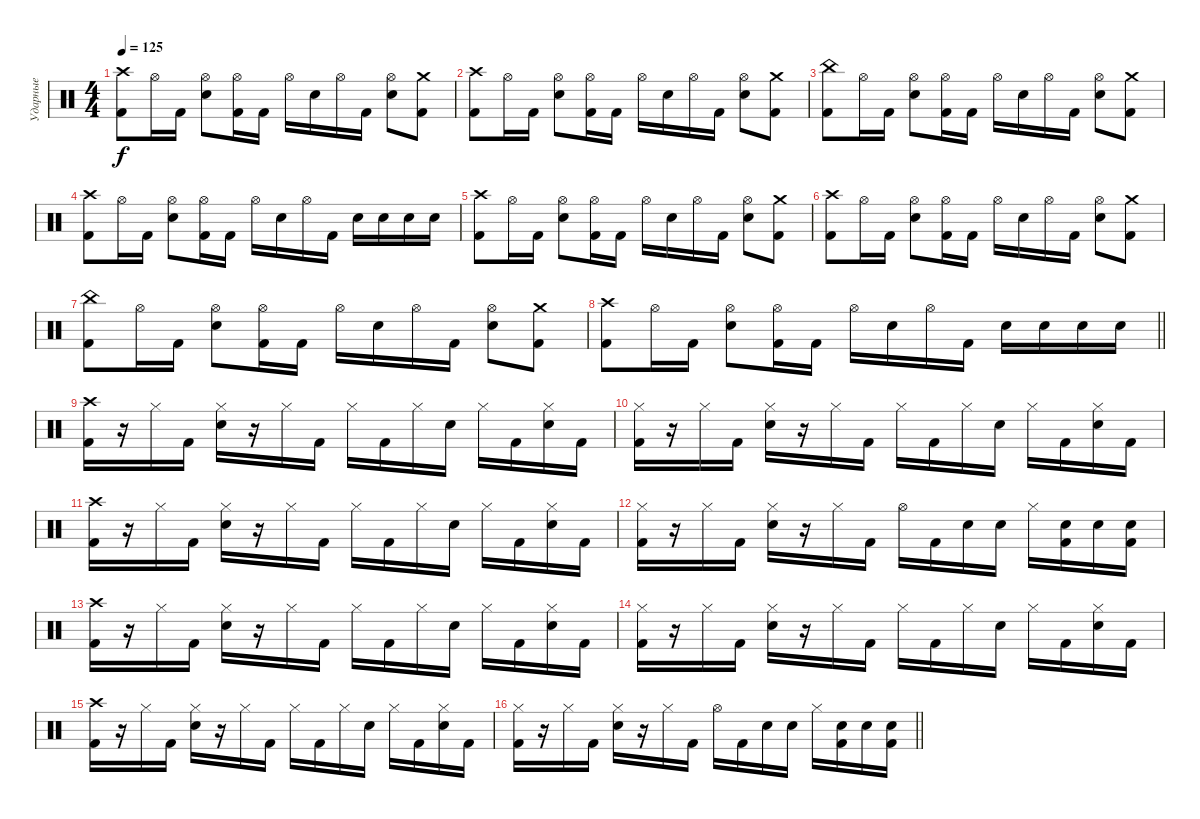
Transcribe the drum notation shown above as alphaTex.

\track ("Ударные" "Ударные") {instrument percussion}
\staff {score}
\articulation defaults
\ts (4 4)
\tempo 125
\clef neutral
\ks c
("Crash high (hit)" "Kick (hit) 2").8{dy f} "Hi-Hat (open)".16 "Kick (hit) 2".16 ("Hi-Hat (open)" "Electric Snare (hit)").8 ("Hi-Hat (open)" "Kick (hit) 2").16 "Kick (hit) 2".16 "Hi-Hat (open)".16 "Electric Snare (hit)".16 "Hi-Hat (open)".16 "Kick (hit) 2".16 ("Hi-Hat (open)" "Electric Snare (hit)").8 ("Crash medium (hit)" "Kick (hit) 2").8 |
("Crash high (hit)" "Kick (hit) 2").8 "Hi-Hat (open)".16 "Kick (hit) 2".16 ("Hi-Hat (open)" "Electric Snare (hit)").8 ("Hi-Hat (open)" "Kick (hit) 2").16 "Kick (hit) 2".16 "Hi-Hat (open)".16 "Electric Snare (hit)".16 "Hi-Hat (open)".16 "Kick (hit) 2".16 ("Hi-Hat (open)" "Electric Snare (hit)").8 ("Crash medium (hit)" "Kick (hit) 2").8 |
("China (hit)" "Kick (hit) 2").8 "Hi-Hat (open)".16 "Kick (hit) 2".16 ("Hi-Hat (open)" "Electric Snare (hit)").8 ("Hi-Hat (open)" "Kick (hit) 2").16 "Kick (hit) 2".16 "Hi-Hat (open)".16 "Electric Snare (hit)".16 "Hi-Hat (open)".16 "Kick (hit) 2".16 ("Hi-Hat (open)" "Electric Snare (hit)").8 ("Crash medium (hit)" "Kick (hit) 2").8 |
("Crash high (hit)" "Kick (hit) 2").8 "Hi-Hat (open)".16 "Kick (hit) 2".16 ("Hi-Hat (open)" "Electric Snare (hit)").8 ("Hi-Hat (open)" "Kick (hit) 2").16 "Kick (hit) 2".16 "Hi-Hat (open)".16 "Electric Snare (hit)".16 "Hi-Hat (open)".16 "Kick (hit) 2".16 "Electric Snare (hit)".16 "Electric Snare (hit)".16 "Electric Snare (hit)".16 "Electric Snare (hit)".16 |
("Crash high (hit)" "Kick (hit) 2").8 "Hi-Hat (open)".16 "Kick (hit) 2".16 ("Hi-Hat (open)" "Electric Snare (hit)").8 ("Hi-Hat (open)" "Kick (hit) 2").16 "Kick (hit) 2".16 "Hi-Hat (open)".16 "Electric Snare (hit)".16 "Hi-Hat (open)".16 "Kick (hit) 2".16 ("Hi-Hat (open)" "Electric Snare (hit)").8 ("Crash medium (hit)" "Kick (hit) 2").8 |
("Crash high (hit)" "Kick (hit) 2").8 "Hi-Hat (open)".16 "Kick (hit) 2".16 ("Hi-Hat (open)" "Electric Snare (hit)").8 ("Hi-Hat (open)" "Kick (hit) 2").16 "Kick (hit) 2".16 "Hi-Hat (open)".16 "Electric Snare (hit)".16 "Hi-Hat (open)".16 "Kick (hit) 2".16 ("Hi-Hat (open)" "Electric Snare (hit)").8 ("Crash medium (hit)" "Kick (hit) 2").8 |
("China (hit)" "Kick (hit) 2").8 "Hi-Hat (open)".16 "Kick (hit) 2".16 ("Hi-Hat (open)" "Electric Snare (hit)").8 ("Hi-Hat (open)" "Kick (hit) 2").16 "Kick (hit) 2".16 "Hi-Hat (open)".16 "Electric Snare (hit)".16 "Hi-Hat (open)".16 "Kick (hit) 2".16 ("Hi-Hat (open)" "Electric Snare (hit)").8 ("Crash medium (hit)" "Kick (hit) 2").8 |
\barLineRight lightlight
("Crash high (hit)" "Kick (hit) 2").8 "Hi-Hat (open)".16 "Kick (hit) 2".16 ("Hi-Hat (open)" "Electric Snare (hit)").8 ("Hi-Hat (open)" "Kick (hit) 2").16 "Kick (hit) 2".16 "Hi-Hat (open)".16 "Electric Snare (hit)".16 "Hi-Hat (open)".16 "Kick (hit) 2".16 "Electric Snare (hit)".16 "Electric Snare (hit)".16 "Electric Snare (hit)".16 "Electric Snare (hit)".16 |
("Crash high (hit)" "Kick (hit) 2").16 r.16 "Hi-Hat (closed)".16 "Kick (hit) 2".16 ("Hi-Hat (closed)" "Electric Snare (hit)").16 r.16 "Hi-Hat (closed)".16 "Kick (hit) 2".16 "Hi-Hat (closed)".16 "Kick (hit) 2".16 "Hi-Hat (closed)".16 "Electric Snare (hit)".16 "Hi-Hat (closed)".16 "Kick (hit) 2".16 ("Hi-Hat (closed)" "Electric Snare (hit)").16 "Kick (hit) 2".16 |
("Hi-Hat (closed)" "Kick (hit) 2").16 r.16 "Hi-Hat (closed)".16 "Kick (hit) 2".16 ("Hi-Hat (closed)" "Electric Snare (hit)").16 r.16 "Hi-Hat (closed)".16 "Kick (hit) 2".16 "Hi-Hat (closed)".16 "Kick (hit) 2".16 "Hi-Hat (closed)".16 "Electric Snare (hit)".16 "Hi-Hat (closed)".16 "Kick (hit) 2".16 ("Hi-Hat (closed)" "Electric Snare (hit)").16 "Kick (hit) 2".16 |
("Crash high (hit)" "Kick (hit) 2").16 r.16 "Hi-Hat (closed)".16 "Kick (hit) 2".16 ("Hi-Hat (closed)" "Electric Snare (hit)").16 r.16 "Hi-Hat (closed)".16 "Kick (hit) 2".16 "Hi-Hat (closed)".16 "Kick (hit) 2".16 "Hi-Hat (closed)".16 "Electric Snare (hit)".16 "Hi-Hat (closed)".16 "Kick (hit) 2".16 ("Hi-Hat (closed)" "Electric Snare (hit)").16 "Kick (hit) 2".16 |
("Hi-Hat (closed)" "Kick (hit) 2").16 r.16 "Hi-Hat (closed)".16 "Kick (hit) 2".16 ("Hi-Hat (closed)" "Electric Snare (hit)").16 r.16 "Hi-Hat (closed)".16 "Kick (hit) 2".16 "Hi-Hat (open)".16 "Kick (hit) 2".16 "Electric Snare (hit)".16 "Electric Snare (hit)".16 "Hi-Hat (closed)".16 ("Electric Snare (hit)" "Kick (hit) 2").16 "Electric Snare (hit)".16 ("Electric Snare (hit)" "Kick (hit) 2").16 |
("Crash high (hit)" "Kick (hit) 2").16 r.16 "Hi-Hat (closed)".16 "Kick (hit) 2".16 ("Hi-Hat (closed)" "Electric Snare (hit)").16 r.16 "Hi-Hat (closed)".16 "Kick (hit) 2".16 "Hi-Hat (closed)".16 "Kick (hit) 2".16 "Hi-Hat (closed)".16 "Electric Snare (hit)".16 "Hi-Hat (closed)".16 "Kick (hit) 2".16 ("Hi-Hat (closed)" "Electric Snare (hit)").16 "Kick (hit) 2".16 |
("Hi-Hat (closed)" "Kick (hit) 2").16 r.16 "Hi-Hat (closed)".16 "Kick (hit) 2".16 ("Hi-Hat (closed)" "Electric Snare (hit)").16 r.16 "Hi-Hat (closed)".16 "Kick (hit) 2".16 "Hi-Hat (closed)".16 "Kick (hit) 2".16 "Hi-Hat (closed)".16 "Electric Snare (hit)".16 "Hi-Hat (closed)".16 "Kick (hit) 2".16 ("Hi-Hat (closed)" "Electric Snare (hit)").16 "Kick (hit) 2".16 |
("Crash high (hit)" "Kick (hit) 2").16 r.16 "Hi-Hat (closed)".16 "Kick (hit) 2".16 ("Hi-Hat (closed)" "Electric Snare (hit)").16 r.16 "Hi-Hat (closed)".16 "Kick (hit) 2".16 "Hi-Hat (closed)".16 "Kick (hit) 2".16 "Hi-Hat (closed)".16 "Electric Snare (hit)".16 "Hi-Hat (closed)".16 "Kick (hit) 2".16 ("Hi-Hat (closed)" "Electric Snare (hit)").16 "Kick (hit) 2".16 |
\barLineRight lightlight
("Hi-Hat (closed)" "Kick (hit) 2").16 r.16 "Hi-Hat (closed)".16 "Kick (hit) 2".16 ("Hi-Hat (closed)" "Electric Snare (hit)").16 r.16 "Hi-Hat (closed)".16 "Kick (hit) 2".16 "Hi-Hat (open)".16 "Kick (hit) 2".16 "Electric Snare (hit)".16 "Electric Snare (hit)".16 "Hi-Hat (closed)".16 ("Electric Snare (hit)" "Kick (hit) 2").16 "Electric Snare (hit)".16 ("Electric Snare (hit)" "Kick (hit) 2").16
